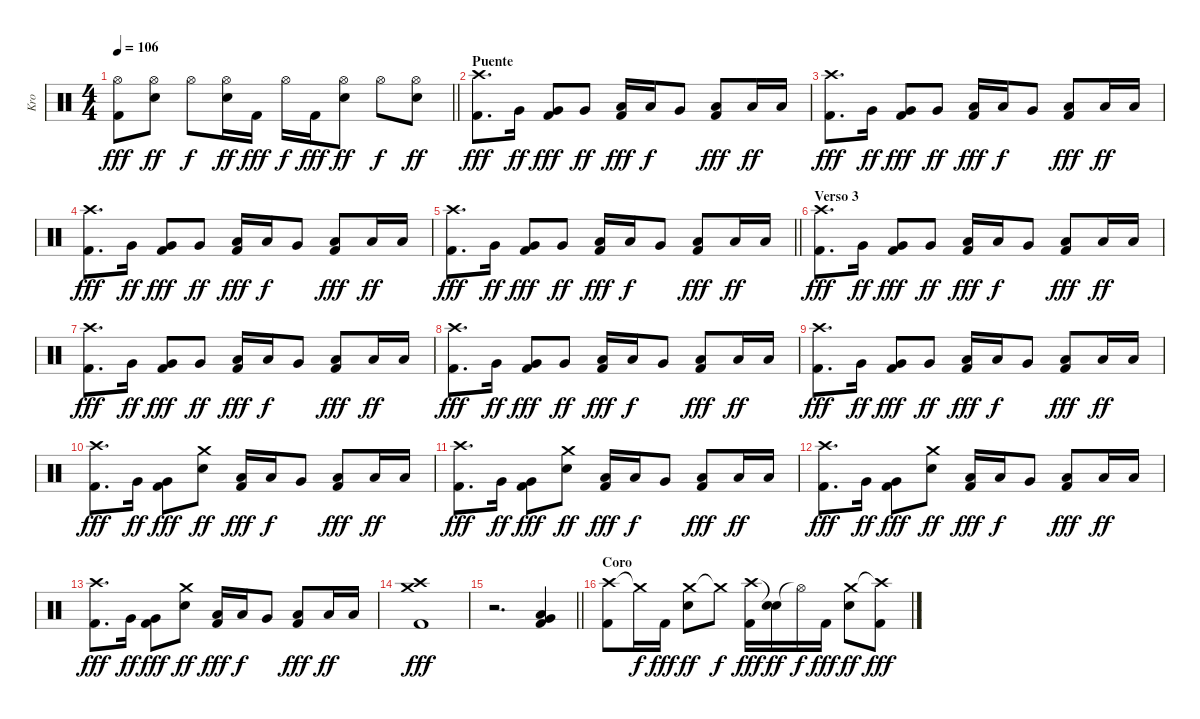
\track ("Kro" "Kro") {instrument percussion}
\staff {score}
\articulation defaults
\ts (4 4)
\tempo 106
\clef neutral
\barLineRight lightlight
\ks c
("Hi-Hat (open)" "Kick (hit) 2").8{dy fff} ("Hi-Hat (open)" "Electric Snare (hit)").8{dy ff} "Hi-Hat (open)".8{dy f} ("Hi-Hat (open)" "Electric Snare (hit)").16{dy ff} "Kick (hit) 2".16{dy fff} "Hi-Hat (open)".16{dy f} "Kick (hit) 2".16{dy fff} ("Hi-Hat (open)" "Electric Snare (hit)").8{dy ff} "Hi-Hat (open)".8{dy f} ("Hi-Hat (open)" "Electric Snare (hit)").8{dy ff} |
\section ("" "Puente")
("Crash high (hit)" "Kick (hit) 2").8{d dy fff} "Very Low Tom (hit)".16{dy ff} ("Very Low Tom (hit)" "Kick (hit) 2").8{dy fff} "Very Low Tom (hit)".8{dy ff} ("Low Tom (hit)" "Kick (hit) 2").16{dy fff} "Low Tom (hit)".16{dy f} "Very Low Tom (hit)".8 ("Low Floor Tom (hit)" "Kick (hit) 2").8{dy fff} "Low Floor Tom (hit)".16{dy ff} "Low Floor Tom (hit)".16 |
("Crash high (hit)" "Kick (hit) 2").8{d dy fff} "Very Low Tom (hit)".16{dy ff} ("Very Low Tom (hit)" "Kick (hit) 2").8{dy fff} "Very Low Tom (hit)".8{dy ff} ("Low Tom (hit)" "Kick (hit) 2").16{dy fff} "Low Tom (hit)".16{dy f} "Very Low Tom (hit)".8 ("Low Floor Tom (hit)" "Kick (hit) 2").8{dy fff} "Low Floor Tom (hit)".16{dy ff} "Low Floor Tom (hit)".16 |
("Crash high (hit)" "Kick (hit) 2").8{d dy fff} "Very Low Tom (hit)".16{dy ff} ("Very Low Tom (hit)" "Kick (hit) 2").8{dy fff} "Very Low Tom (hit)".8{dy ff} ("Low Tom (hit)" "Kick (hit) 2").16{dy fff} "Low Tom (hit)".16{dy f} "Very Low Tom (hit)".8 ("Low Floor Tom (hit)" "Kick (hit) 2").8{dy fff} "Low Floor Tom (hit)".16{dy ff} "Low Floor Tom (hit)".16 |
\barLineRight lightlight
("Crash high (hit)" "Kick (hit) 2").8{d dy fff} "Very Low Tom (hit)".16{dy ff} ("Very Low Tom (hit)" "Kick (hit) 2").8{dy fff} "Very Low Tom (hit)".8{dy ff} ("Low Tom (hit)" "Kick (hit) 2").16{dy fff} "Low Tom (hit)".16{dy f} "Very Low Tom (hit)".8 ("Low Floor Tom (hit)" "Kick (hit) 2").8{dy fff} "Low Floor Tom (hit)".16{dy ff} "Low Floor Tom (hit)".16 |
\section ("" "Verso 3")
("Crash high (hit)" "Kick (hit) 2").8{d dy fff} "Very Low Tom (hit)".16{dy ff} ("Very Low Tom (hit)" "Kick (hit) 2").8{dy fff} "Very Low Tom (hit)".8{dy ff} ("Low Tom (hit)" "Kick (hit) 2").16{dy fff} "Low Tom (hit)".16{dy f} "Very Low Tom (hit)".8 ("Low Floor Tom (hit)" "Kick (hit) 2").8{dy fff} "Low Floor Tom (hit)".16{dy ff} "Low Floor Tom (hit)".16 |
("Crash high (hit)" "Kick (hit) 2").8{d dy fff} "Very Low Tom (hit)".16{dy ff} ("Very Low Tom (hit)" "Kick (hit) 2").8{dy fff} "Very Low Tom (hit)".8{dy ff} ("Low Tom (hit)" "Kick (hit) 2").16{dy fff} "Low Tom (hit)".16{dy f} "Very Low Tom (hit)".8 ("Low Floor Tom (hit)" "Kick (hit) 2").8{dy fff} "Low Floor Tom (hit)".16{dy ff} "Low Floor Tom (hit)".16 |
("Crash high (hit)" "Kick (hit) 2").8{d dy fff} "Very Low Tom (hit)".16{dy ff} ("Very Low Tom (hit)" "Kick (hit) 2").8{dy fff} "Very Low Tom (hit)".8{dy ff} ("Low Tom (hit)" "Kick (hit) 2").16{dy fff} "Low Tom (hit)".16{dy f} "Very Low Tom (hit)".8 ("Low Floor Tom (hit)" "Kick (hit) 2").8{dy fff} "Low Floor Tom (hit)".16{dy ff} "Low Floor Tom (hit)".16 |
("Crash high (hit)" "Kick (hit) 2").8{d dy fff} "Very Low Tom (hit)".16{dy ff} ("Very Low Tom (hit)" "Kick (hit) 2").8{dy fff} "Very Low Tom (hit)".8{dy ff} ("Low Tom (hit)" "Kick (hit) 2").16{dy fff} "Low Tom (hit)".16{dy f} "Very Low Tom (hit)".8 ("Low Floor Tom (hit)" "Kick (hit) 2").8{dy fff} "Low Floor Tom (hit)".16{dy ff} "Low Floor Tom (hit)".16 |
("Crash high (hit)" "Kick (hit) 2").8{d dy fff} "Very Low Tom (hit)".16{dy ff} ("Very Low Tom (hit)" "Kick (hit) 2").8{dy fff} ("Crash medium (hit)" "Electric Snare (hit)").8{dy ff} ("Low Tom (hit)" "Kick (hit) 2").16{dy fff} "Low Tom (hit)".16{dy f} "Very Low Tom (hit)".8 ("Low Floor Tom (hit)" "Kick (hit) 2").8{dy fff} "Low Floor Tom (hit)".16{dy ff} "Low Floor Tom (hit)".16 |
("Crash high (hit)" "Kick (hit) 2").8{d dy fff} "Very Low Tom (hit)".16{dy ff} ("Very Low Tom (hit)" "Kick (hit) 2").8{dy fff} ("Crash medium (hit)" "Electric Snare (hit)").8{dy ff} ("Low Tom (hit)" "Kick (hit) 2").16{dy fff} "Low Tom (hit)".16{dy f} "Very Low Tom (hit)".8 ("Low Floor Tom (hit)" "Kick (hit) 2").8{dy fff} "Low Floor Tom (hit)".16{dy ff} "Low Floor Tom (hit)".16 |
("Crash high (hit)" "Kick (hit) 2").8{d dy fff} "Very Low Tom (hit)".16{dy ff} ("Very Low Tom (hit)" "Kick (hit) 2").8{dy fff} ("Crash medium (hit)" "Electric Snare (hit)").8{dy ff} ("Low Tom (hit)" "Kick (hit) 2").16{dy fff} "Low Tom (hit)".16{dy f} "Very Low Tom (hit)".8 ("Low Floor Tom (hit)" "Kick (hit) 2").8{dy fff} "Low Floor Tom (hit)".16{dy ff} "Low Floor Tom (hit)".16 |
("Crash high (hit)" "Kick (hit) 2").8{d dy fff} "Very Low Tom (hit)".16{dy ff} ("Very Low Tom (hit)" "Kick (hit) 2").8{dy fff} ("Crash medium (hit)" "Electric Snare (hit)").8{dy ff} ("Low Tom (hit)" "Kick (hit) 2").16{dy fff} "Low Tom (hit)".16{dy f} "Very Low Tom (hit)".8 ("Low Floor Tom (hit)" "Kick (hit) 2").8{dy fff} "Low Floor Tom (hit)".16{dy ff} "Low Floor Tom (hit)".16 |
("Crash high (hit)" "Crash medium (hit)" "Kick (hit) 2").1{dy fff} |
\barLineRight lightlight
r.2{d} ("Low Tom (hit)" "Very Low Tom (hit)" "Kick (hit) 2").4 |
\section ("" "Coro")
("Crash high (hit)" "Kick (hit) 2").8 "Crash medium (hit)"{t}.16{dy f} "Kick (hit) 2".16{dy fff} ("Crash medium (hit)" "Electric Snare (hit)").8{dy ff} "Crash medium (hit)"{t}.8{dy f} ("Crash high (hit)" "Kick (hit) 2").16{dy fff} ("Snare (hit)"{t} "Electric Snare (hit)").16{dy ff} "Hi-Hat (open)"{t}.16{dy f} "Kick (hit) 2".16{dy fff} ("Crash medium (hit)" "Electric Snare (hit)").8{dy ff} ("Crash high (hit)"{t} "Kick (hit) 2").8{dy fff}
